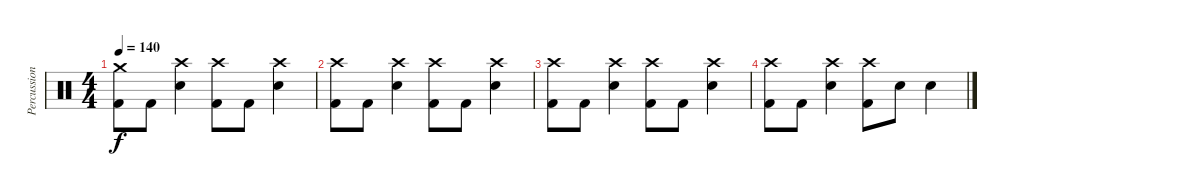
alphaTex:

\track ("Percussion" "Percussion") {instrument percussion}
\staff {score}
\articulation defaults
\ts (4 4)
\tempo 140
\clef neutral
\ks c
("Crash medium (hit)" "Kick (hit) 2").8{dy f} "Kick (hit) 2".8 ("Crash high (hit)" "Electric Snare (hit)").4 ("Crash high (hit)" "Kick (hit) 2").8 "Kick (hit) 2".8 ("Crash high (hit)" "Electric Snare (hit)").4 |
("Crash high (hit)" "Kick (hit) 2").8 "Kick (hit) 2".8 ("Crash high (hit)" "Electric Snare (hit)").4 ("Crash high (hit)" "Kick (hit) 2").8 "Kick (hit) 2".8 ("Crash high (hit)" "Electric Snare (hit)").4 |
("Crash high (hit)" "Kick (hit) 2").8 "Kick (hit) 2".8 ("Crash high (hit)" "Electric Snare (hit)").4 ("Crash high (hit)" "Kick (hit) 2").8 "Kick (hit) 2".8 ("Crash high (hit)" "Electric Snare (hit)").4 |
("Crash high (hit)" "Kick (hit) 2").8 "Kick (hit) 2".8 ("Crash high (hit)" "Electric Snare (hit)").4 ("Crash high (hit)" "Kick (hit) 2").8 "Electric Snare (hit)".8 "Electric Snare (hit)".4
